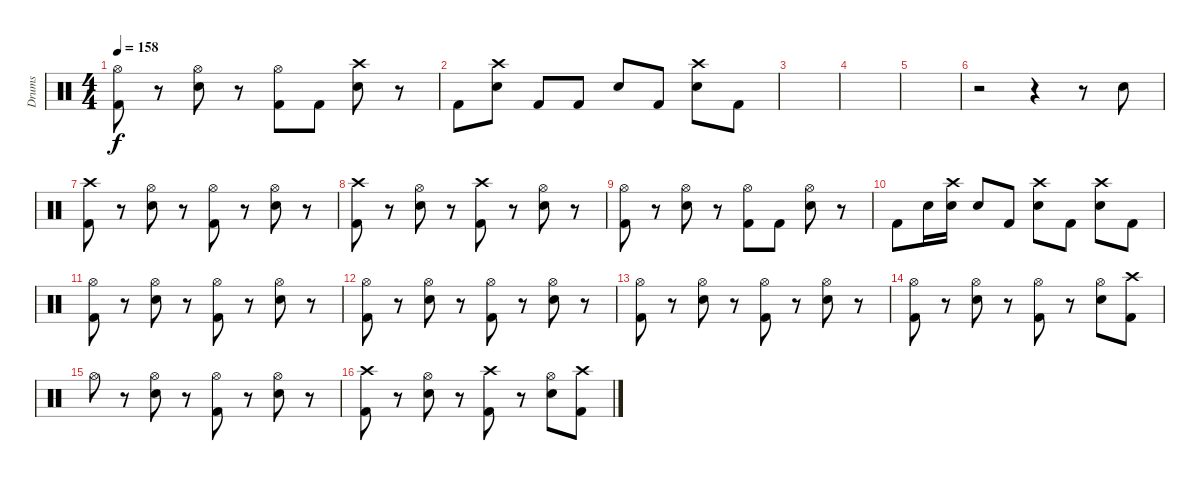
\track ("Drums" "Drums") {instrument percussion}
\staff {score}
\articulation defaults
\ts (4 4)
\tempo 158
\clef neutral
\ks c
("Hi-Hat (open)" "Kick (hit) 2").8{dy f} r.8 ("Hi-Hat (open)" "Snare (hit) 2").8 r.8 ("Hi-Hat (open)" "Kick (hit) 2").8 "Kick (hit) 2".8 ("Crash high (hit)" "Snare (hit) 2").8 r.8 |
"Kick (hit) 2".8 ("Crash high (hit)" "Snare (hit) 2").8 "Kick (hit) 2".8 "Kick (hit) 2".8 "Snare (hit) 2".8 "Kick (hit) 2".8 ("Crash high (hit)" "Snare (hit) 2").8 "Kick (hit) 2".8 |
|
|
|
r.2 r.4 r.8 "Snare (hit) 2".8 |
("Crash high (hit)" "Kick (hit) 2").8 r.8 ("Hi-Hat (open)" "Snare (hit) 2").8 r.8 ("Hi-Hat (open)" "Kick (hit) 2").8 r.8 ("Hi-Hat (open)" "Snare (hit) 2").8 r.8 |
("Crash high (hit)" "Kick (hit) 2").8 r.8 ("Hi-Hat (open)" "Snare (hit) 2").8 r.8 ("Crash high (hit)" "Kick (hit) 2").8 r.8 ("Hi-Hat (open)" "Snare (hit) 2").8 r.8 |
("Hi-Hat (open)" "Kick (hit) 2").8 r.8 ("Hi-Hat (open)" "Snare (hit) 2").8 r.8 ("Hi-Hat (open)" "Kick (hit) 2").8 "Kick (hit) 2".8 ("Hi-Hat (open)" "Snare (hit) 2").8 r.8 |
"Kick (hit) 2".8 "Snare (hit) 2".16 ("Crash high (hit)" "Snare (hit) 2").16 "Snare (hit) 2".8 "Kick (hit) 2".8 ("Crash high (hit)" "Snare (hit) 2").8 "Kick (hit) 2".8 ("Crash high (hit)" "Snare (hit) 2").8 "Kick (hit) 2".8 |
("Hi-Hat (open)" "Kick (hit) 2").8 r.8 ("Hi-Hat (open)" "Snare (hit) 2").8 r.8 ("Hi-Hat (open)" "Kick (hit) 2").8 r.8 ("Hi-Hat (open)" "Snare (hit) 2").8 r.8 |
("Hi-Hat (open)" "Kick (hit) 2").8 r.8 ("Hi-Hat (open)" "Snare (hit) 2").8 r.8 ("Hi-Hat (open)" "Kick (hit) 2").8 r.8 ("Hi-Hat (open)" "Snare (hit) 2").8 r.8 |
("Hi-Hat (open)" "Kick (hit) 2").8 r.8 ("Hi-Hat (open)" "Snare (hit) 2").8 r.8 ("Hi-Hat (open)" "Kick (hit) 2").8 r.8 ("Hi-Hat (open)" "Snare (hit) 2").8 r.8 |
("Hi-Hat (open)" "Kick (hit) 2").8 r.8 ("Hi-Hat (open)" "Snare (hit) 2").8 r.8 ("Hi-Hat (open)" "Kick (hit) 2").8 r.8 ("Hi-Hat (open)" "Snare (hit) 2").8 ("Crash high (hit)" "Kick (hit) 2").8 |
"Hi-Hat (open)".8 r.8 ("Hi-Hat (open)" "Snare (hit) 2").8 r.8 ("Hi-Hat (open)" "Kick (hit) 2").8 r.8 ("Hi-Hat (open)" "Snare (hit) 2").8 r.8 |
("Crash high (hit)" "Kick (hit) 2").8 r.8 ("Hi-Hat (open)" "Snare (hit) 2").8 r.8 ("Crash high (hit)" "Kick (hit) 2").8 r.8 ("Hi-Hat (open)" "Snare (hit) 2").8 ("Crash high (hit)" "Kick (hit) 2").8
